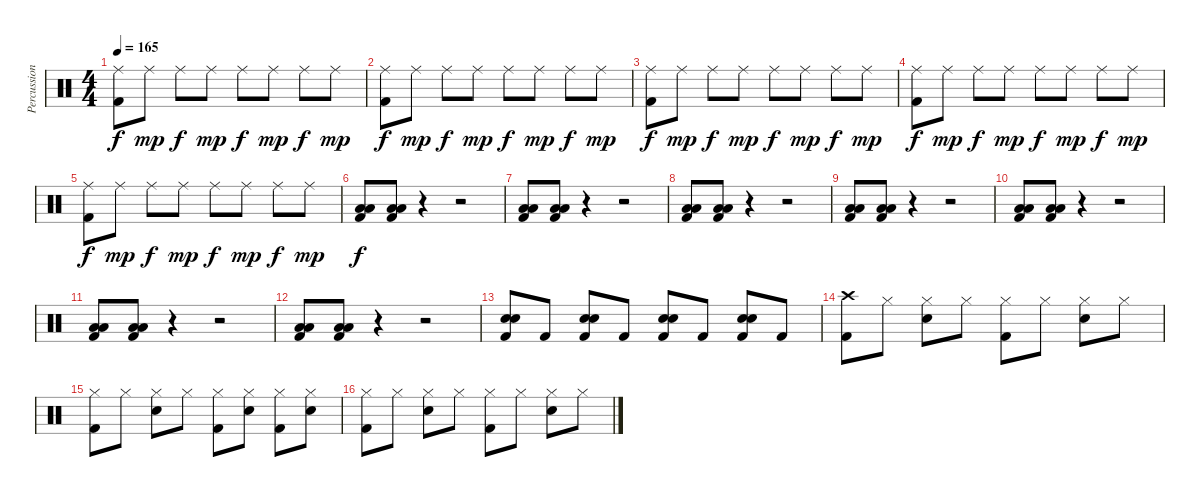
\track ("Percussion" "Percussion") {instrument percussion}
\staff {score}
\articulation defaults
\ts (4 4)
\tempo 165
\clef neutral
\ks c
("Ride (middle)" "Kick (hit) 2").8{dy f} "Ride (middle)".8{dy mp} "Ride (middle)".8{dy f} "Ride (middle)".8{dy mp} "Ride (middle)".8{dy f} "Ride (middle)".8{dy mp} "Ride (middle)".8{dy f} "Ride (middle)".8{dy mp} |
("Ride (middle)" "Kick (hit) 2").8{dy f} "Ride (middle)".8{dy mp} "Ride (middle)".8{dy f} "Ride (middle)".8{dy mp} "Ride (middle)".8{dy f} "Ride (middle)".8{dy mp} "Ride (middle)".8{dy f} "Ride (middle)".8{dy mp} |
("Ride (middle)" "Kick (hit) 2").8{dy f} "Ride (middle)".8{dy mp} "Ride (middle)".8{dy f} "Ride (middle)".8{dy mp} "Ride (middle)".8{dy f} "Ride (middle)".8{dy mp} "Ride (middle)".8{dy f} "Ride (middle)".8{dy mp} |
("Ride (middle)" "Kick (hit) 2").8{dy f} "Ride (middle)".8{dy mp} "Ride (middle)".8{dy f} "Ride (middle)".8{dy mp} "Ride (middle)".8{dy f} "Ride (middle)".8{dy mp} "Ride (middle)".8{dy f} "Ride (middle)".8{dy mp} |
("Ride (middle)" "Kick (hit) 2").8{dy f} "Ride (middle)".8{dy mp} "Ride (middle)".8{dy f} "Ride (middle)".8{dy mp} "Ride (middle)".8{dy f} "Ride (middle)".8{dy mp} "Ride (middle)".8{dy f} "Ride (middle)".8{dy mp} |
("Low Floor Tom (hit)" "Low Floor Tom (hit)" "Kick (hit) 2").8{dy f} ("Low Floor Tom (hit)" "Low Floor Tom (hit)" "Kick (hit) 2").8 r.4 r.2 |
("Low Floor Tom (hit)" "Low Floor Tom (hit)" "Kick (hit) 2").8 ("Low Floor Tom (hit)" "Low Floor Tom (hit)" "Kick (hit) 2").8 r.4 r.2 |
("Low Floor Tom (hit)" "Low Floor Tom (hit)" "Kick (hit) 2").8 ("Low Floor Tom (hit)" "Low Floor Tom (hit)" "Kick (hit) 2").8 r.4 r.2 |
("Low Floor Tom (hit)" "Low Floor Tom (hit)" "Kick (hit) 2").8 ("Low Floor Tom (hit)" "Low Floor Tom (hit)" "Kick (hit) 2").8 r.4 r.2 |
("Low Floor Tom (hit)" "Low Floor Tom (hit)" "Kick (hit) 2").8 ("Low Floor Tom (hit)" "Low Floor Tom (hit)" "Kick (hit) 2").8 r.4 r.2 |
("Low Floor Tom (hit)" "Low Floor Tom (hit)" "Kick (hit) 2").8 ("Low Floor Tom (hit)" "Low Floor Tom (hit)" "Kick (hit) 2").8 r.4 r.2 |
("Low Floor Tom (hit)" "Low Floor Tom (hit)" "Kick (hit) 2").8 ("Low Floor Tom (hit)" "Low Floor Tom (hit)" "Kick (hit) 2").8 r.4 r.2 |
("Snare (hit) 2" "Snare (hit) 2" "Kick (hit) 2").8 "Kick (hit) 2".8 ("Snare (hit) 2" "Snare (hit) 2" "Kick (hit) 2").8 "Kick (hit) 2".8 ("Snare (hit) 2" "Snare (hit) 2" "Kick (hit) 2").8 "Kick (hit) 2".8 ("Snare (hit) 2" "Snare (hit) 2" "Kick (hit) 2").8 "Kick (hit) 2".8 |
("Crash high (hit)" "Kick (hit) 2").8 "Hi-Hat (closed)".8 ("Hi-Hat (closed)" "Snare (hit) 2").8 "Hi-Hat (closed)".8 ("Hi-Hat (closed)" "Kick (hit) 2").8 "Hi-Hat (closed)".8 ("Hi-Hat (closed)" "Snare (hit) 2").8 "Hi-Hat (closed)".8 |
("Hi-Hat (closed)" "Kick (hit) 2").8 "Hi-Hat (closed)".8 ("Hi-Hat (closed)" "Snare (hit) 2").8 "Hi-Hat (closed)".8 ("Hi-Hat (closed)" "Kick (hit) 2").8 ("Hi-Hat (closed)" "Snare (hit) 2").8 ("Hi-Hat (closed)" "Kick (hit) 2").8 ("Hi-Hat (closed)" "Snare (hit) 2").8 |
("Hi-Hat (closed)" "Kick (hit) 2").8 "Hi-Hat (closed)".8 ("Hi-Hat (closed)" "Snare (hit) 2").8 "Hi-Hat (closed)".8 ("Hi-Hat (closed)" "Kick (hit) 2").8 "Hi-Hat (closed)".8 ("Hi-Hat (closed)" "Snare (hit) 2").8 "Hi-Hat (closed)".8
